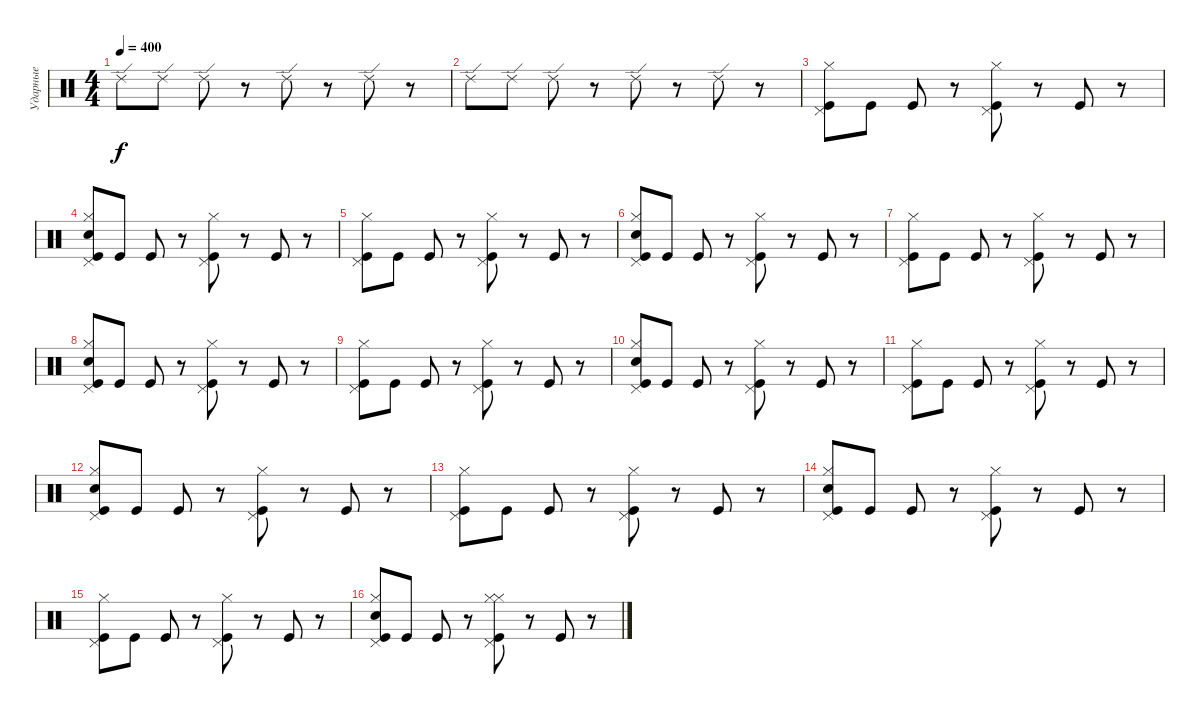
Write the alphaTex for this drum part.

\track ("Ударные" "Ударные") {instrument percussion}
\staff {score}
\articulation defaults
\ts (4 4)
\tempo 400
\clef neutral
\ks c "Ride (edge) 2".8{dy f} "Ride (edge) 2".8 "Ride (edge) 2".8
r.8 "Ride (edge) 2".8 r.8 "Ride (edge) 2".8 r.8 |
"Ride (edge) 2".8 "Ride (edge) 2".8 "Ride (edge) 2".8 r.8 "Ride (edge) 2".8 r.8 "Ride (edge) 2".8 r.8 |
("Kick (hit)" "Pedal Hi-Hat (hit)" "Hi-Hat (closed)").8 "Kick (hit)".8 "Kick (hit)".8 r.8 ("Kick (hit)" "Hi-Hat (closed)" "Pedal Hi-Hat (hit)").8 r.8 "Kick (hit)".8 r.8 |
("Electric Snare (hit)" "Kick (hit)" "Hi-Hat (closed)" "Pedal Hi-Hat (hit)").8 "Kick (hit)".8 "Kick (hit)".8 r.8 ("Kick (hit)" "Pedal Hi-Hat (hit)" "Hi-Hat (closed)").8 r.8 "Kick (hit)".8 r.8 |
("Kick (hit)" "Hi-Hat (closed)" "Pedal Hi-Hat (hit)").8 "Kick (hit)".8 "Kick (hit)".8 r.8 ("Kick (hit)" "Pedal Hi-Hat (hit)" "Hi-Hat (closed)").8 r.8 "Kick (hit)".8 r.8 |
("Kick (hit)" "Electric Snare (hit)" "Hi-Hat (closed)" "Pedal Hi-Hat (hit)").8 "Kick (hit)".8 "Kick (hit)".8 r.8 ("Kick (hit)" "Pedal Hi-Hat (hit)" "Hi-Hat (closed)").8 r.8 "Kick (hit)".8 r.8 |
("Kick (hit)" "Hi-Hat (closed)" "Pedal Hi-Hat (hit)").8 "Kick (hit)".8 "Kick (hit)".8 r.8 ("Kick (hit)" "Pedal Hi-Hat (hit)" "Hi-Hat (closed)").8 r.8 "Kick (hit)".8 r.8 |
("Kick (hit)" "Electric Snare (hit)" "Hi-Hat (closed)" "Pedal Hi-Hat (hit)").8 "Kick (hit)".8 "Kick (hit)".8 r.8 ("Kick (hit)" "Pedal Hi-Hat (hit)" "Hi-Hat (closed)").8 r.8 "Kick (hit)".8 r.8 |
("Kick (hit)" "Hi-Hat (closed)" "Pedal Hi-Hat (hit)").8 "Kick (hit)".8 "Kick (hit)".8 r.8 ("Kick (hit)" "Pedal Hi-Hat (hit)" "Hi-Hat (closed)").8 r.8 "Kick (hit)".8 r.8 |
("Kick (hit)" "Electric Snare (hit)" "Hi-Hat (closed)" "Pedal Hi-Hat (hit)").8 "Kick (hit)".8 "Kick (hit)".8 r.8 ("Kick (hit)" "Pedal Hi-Hat (hit)" "Hi-Hat (closed)").8 r.8 "Kick (hit)".8 r.8 |
("Kick (hit)" "Pedal Hi-Hat (hit)" "Hi-Hat (closed)").8 "Kick (hit)".8 "Kick (hit)".8 r.8 ("Kick (hit)" "Hi-Hat (closed)" "Pedal Hi-Hat (hit)").8 r.8 "Kick (hit)".8 r.8 |
("Kick (hit)" "Electric Snare (hit)" "Pedal Hi-Hat (hit)" "Hi-Hat (closed)").8 "Kick (hit)".8 "Kick (hit)".8 r.8 ("Kick (hit)" "Hi-Hat (closed)" "Pedal Hi-Hat (hit)").8 r.8 "Kick (hit)".8 r.8 |
("Kick (hit)" "Pedal Hi-Hat (hit)" "Hi-Hat (closed)").8 "Kick (hit)".8 "Kick (hit)".8 r.8 ("Kick (hit)" "Hi-Hat (closed)" "Pedal Hi-Hat (hit)").8 r.8 "Kick (hit)".8 r.8 |
("Kick (hit)" "Electric Snare (hit)" "Pedal Hi-Hat (hit)" "Hi-Hat (closed)").8 "Kick (hit)".8 "Kick (hit)".8 r.8 ("Kick (hit)" "Hi-Hat (closed)" "Pedal Hi-Hat (hit)").8 r.8 "Kick (hit)".8 r.8 |
("Kick (hit)" "Pedal Hi-Hat (hit)" "Hi-Hat (closed)").8 "Kick (hit)".8 "Kick (hit)".8 r.8 ("Kick (hit)" "Pedal Hi-Hat (hit)" "Hi-Hat (closed)").8 r.8 "Kick (hit)".8 r.8 |
("Kick (hit)" "Electric Snare (hit)" "Hi-Hat (closed)" "Pedal Hi-Hat (hit)").8 "Kick (hit)".8 "Kick (hit)".8 r.8 ("Kick (hit)" "Pedal Hi-Hat (hit)" "Hi-Hat (closed)" "Hi-Hat (closed)").8 r.8 "Kick (hit)".8 r.8
